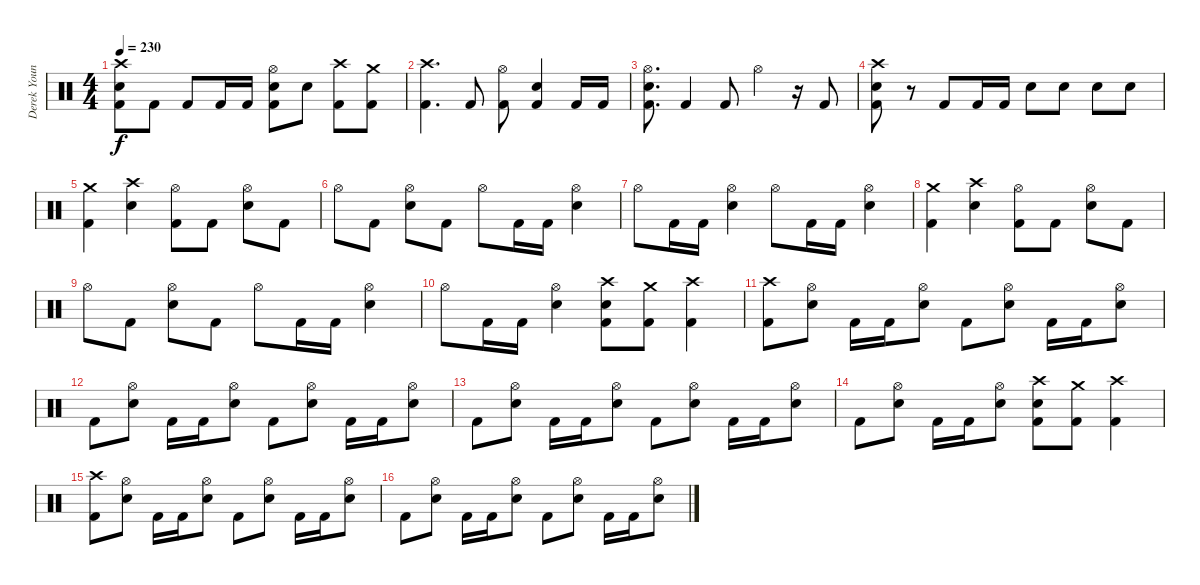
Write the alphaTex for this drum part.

\track ("Derek Youngsma" "Derek Youn") {instrument percussion}
\staff {score}
\articulation defaults
\ts (4 4)
\tempo 230
\clef neutral
\ks c
("Crash high (hit)" "Electric Snare (hit)" "Kick (hit) 2").8{dy f} "Kick (hit) 2".8 "Kick (hit) 2".8 "Kick (hit) 2".16 "Kick (hit) 2".16 ("Hi-Hat (open)" "Electric Snare (hit)" "Kick (hit) 2").8 "Electric Snare (hit)".8 ("Crash high (hit)" "Kick (hit) 2").8 ("Crash medium (hit)" "Kick (hit) 2").8 |
("Crash high (hit)" "Kick (hit) 2").4{d} "Kick (hit) 2".8 ("Hi-Hat (open)" "Kick (hit) 2").8 ("Electric Snare (hit)" "Kick (hit) 2").4 "Kick (hit) 2".16 "Kick (hit) 2".16 |
("Hi-Hat (open)" "Electric Snare (hit)" "Kick (hit) 2").8{d} "Kick (hit) 2".4 "Kick (hit) 2".8 "Hi-Hat (open)".4 r.16 "Kick (hit) 2".8 |
("Crash high (hit)" "Electric Snare (hit)" "Kick (hit) 2").8 r.8 "Kick (hit) 2".8 "Kick (hit) 2".16 "Kick (hit) 2".16 "Electric Snare (hit)".8 "Electric Snare (hit)".8 "Electric Snare (hit)".8 "Electric Snare (hit)".8 |
("Crash medium (hit)" "Kick (hit) 2").4 ("Crash high (hit)" "Electric Snare (hit)").4 ("Hi-Hat (open)" "Kick (hit) 2").8 "Kick (hit) 2".8 ("Hi-Hat (open)" "Electric Snare (hit)").8 "Kick (hit) 2".8 |
"Hi-Hat (open)".8 "Kick (hit) 2".8 ("Hi-Hat (open)" "Electric Snare (hit)").8 "Kick (hit) 2".8 "Hi-Hat (open)".8 "Kick (hit) 2".16 "Kick (hit) 2".16 ("Hi-Hat (open)" "Electric Snare (hit)").4 |
"Hi-Hat (open)".8 "Kick (hit) 2".16 "Kick (hit) 2".16 ("Hi-Hat (open)" "Electric Snare (hit)").4 "Hi-Hat (open)".8 "Kick (hit) 2".16 "Kick (hit) 2".16 ("Hi-Hat (open)" "Electric Snare (hit)").4 |
("Crash medium (hit)" "Kick (hit) 2").4 ("Crash high (hit)" "Electric Snare (hit)").4 ("Hi-Hat (open)" "Kick (hit) 2").8 "Kick (hit) 2".8 ("Hi-Hat (open)" "Electric Snare (hit)").8 "Kick (hit) 2".8 |
"Hi-Hat (open)".8 "Kick (hit) 2".8 ("Hi-Hat (open)" "Electric Snare (hit)").8 "Kick (hit) 2".8 "Hi-Hat (open)".8 "Kick (hit) 2".16 "Kick (hit) 2".16 ("Hi-Hat (open)" "Electric Snare (hit)").4 |
"Hi-Hat (open)".8 "Kick (hit) 2".16 "Kick (hit) 2".16 ("Hi-Hat (open)" "Electric Snare (hit)").4 ("Crash high (hit)" "Electric Snare (hit)" "Kick (hit) 2").8 ("Crash medium (hit)" "Kick (hit) 2").8 ("Crash high (hit)" "Kick (hit) 2").4 |
("Crash high (hit)" "Kick (hit) 2").8 ("Hi-Hat (open)" "Electric Snare (hit)").8 "Kick (hit) 2".16 "Kick (hit) 2".16 ("Hi-Hat (open)" "Electric Snare (hit)").8 "Kick (hit) 2".8 ("Hi-Hat (open)" "Electric Snare (hit)").8 "Kick (hit) 2".16 "Kick (hit) 2".16 ("Hi-Hat (open)" "Electric Snare (hit)").8 |
"Kick (hit) 2".8 ("Hi-Hat (open)" "Electric Snare (hit)").8 "Kick (hit) 2".16 "Kick (hit) 2".16 ("Hi-Hat (open)" "Electric Snare (hit)").8 "Kick (hit) 2".8 ("Hi-Hat (open)" "Electric Snare (hit)").8 "Kick (hit) 2".16 "Kick (hit) 2".16 ("Hi-Hat (open)" "Electric Snare (hit)").8 |
"Kick (hit) 2".8 ("Hi-Hat (open)" "Electric Snare (hit)").8 "Kick (hit) 2".16 "Kick (hit) 2".16 ("Hi-Hat (open)" "Electric Snare (hit)").8 "Kick (hit) 2".8 ("Hi-Hat (open)" "Electric Snare (hit)").8 "Kick (hit) 2".16 "Kick (hit) 2".16 ("Hi-Hat (open)" "Electric Snare (hit)").8 |
"Kick (hit) 2".8 ("Hi-Hat (open)" "Electric Snare (hit)").8 "Kick (hit) 2".16 "Kick (hit) 2".16 ("Hi-Hat (open)" "Electric Snare (hit)").8 ("Crash high (hit)" "Electric Snare (hit)" "Kick (hit) 2").8 ("Crash medium (hit)" "Kick (hit) 2").8 ("Crash high (hit)" "Kick (hit) 2").4 |
("Crash high (hit)" "Kick (hit) 2").8 ("Hi-Hat (open)" "Electric Snare (hit)").8 "Kick (hit) 2".16 "Kick (hit) 2".16 ("Hi-Hat (open)" "Electric Snare (hit)").8 "Kick (hit) 2".8 ("Hi-Hat (open)" "Electric Snare (hit)").8 "Kick (hit) 2".16 "Kick (hit) 2".16 ("Hi-Hat (open)" "Electric Snare (hit)").8 |
"Kick (hit) 2".8 ("Hi-Hat (open)" "Electric Snare (hit)").8 "Kick (hit) 2".16 "Kick (hit) 2".16 ("Hi-Hat (open)" "Electric Snare (hit)").8 "Kick (hit) 2".8 ("Hi-Hat (open)" "Electric Snare (hit)").8 "Kick (hit) 2".16 "Kick (hit) 2".16 ("Hi-Hat (open)" "Electric Snare (hit)").8
